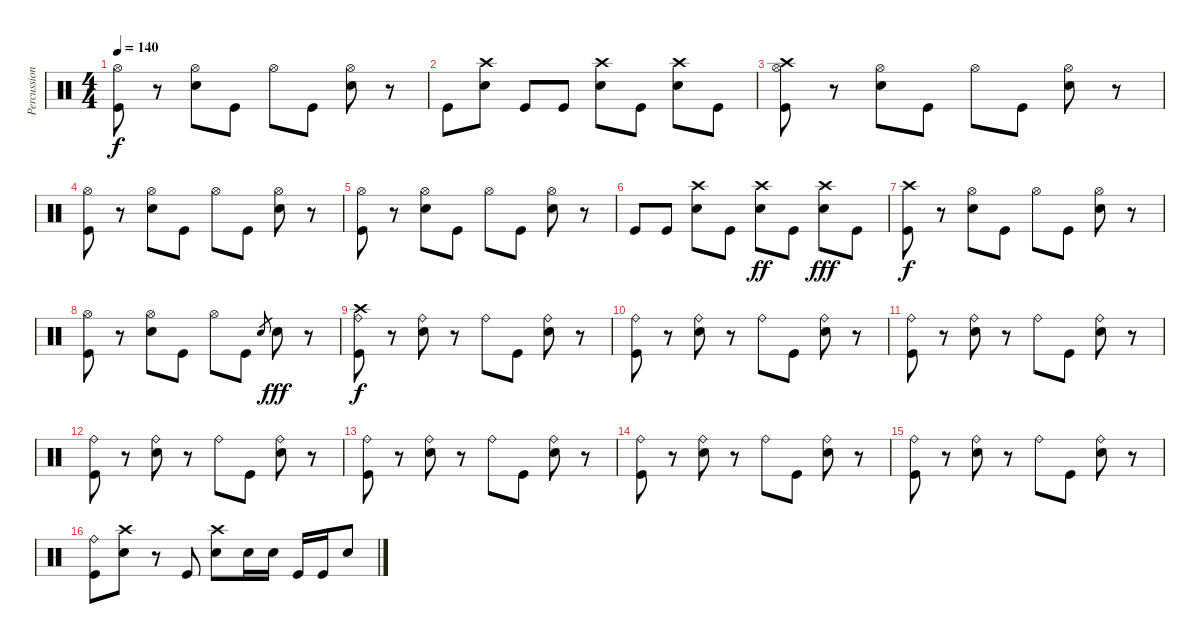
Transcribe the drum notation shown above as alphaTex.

\track ("Percussion" "Percussion") {instrument percussion}
\staff {score}
\articulation defaults
\ts (4 4)
\tempo 140
\clef neutral
\ks c
("Kick (hit)" "Hi-Hat (open)").8{dy f} r.8 ("Snare (hit) 2" "Hi-Hat (open)").8 "Kick (hit)".8 "Hi-Hat (open)".8 "Kick (hit)".8 ("Snare (hit) 2" "Hi-Hat (open)").8 r.8 |
"Kick (hit)".8 ("Snare (hit) 2" "Crash high (hit)").8 "Kick (hit)".8 "Kick (hit)".8 ("Snare (hit) 2" "Crash high (hit)").8 "Kick (hit)".8 ("Snare (hit) 2" "Crash high (hit)").8 "Kick (hit)".8 |
("Kick (hit)" "Hi-Hat (open)" "Crash high (hit)").8 r.8 ("Snare (hit) 2" "Hi-Hat (open)").8 "Kick (hit)".8 "Hi-Hat (open)".8 "Kick (hit)".8 ("Snare (hit) 2" "Hi-Hat (open)").8 r.8 |
("Kick (hit)" "Hi-Hat (open)").8 r.8 ("Snare (hit) 2" "Hi-Hat (open)").8 "Kick (hit)".8 "Hi-Hat (open)".8 "Kick (hit)".8 ("Snare (hit) 2" "Hi-Hat (open)").8 r.8 |
("Kick (hit)" "Hi-Hat (open)").8 r.8 ("Snare (hit) 2" "Hi-Hat (open)").8 "Kick (hit)".8 "Hi-Hat (open)".8 "Kick (hit)".8 ("Snare (hit) 2" "Hi-Hat (open)").8 r.8 |
"Kick (hit)".8 "Kick (hit)".8 ("Snare (hit) 2" "Crash high (hit)").8 "Kick (hit)".8 ("Snare (hit) 2" "Crash high (hit)").8{dy ff} "Kick (hit)".8 ("Snare (hit) 2" "Crash high (hit)").8{dy fff} "Kick (hit)".8 |
("Kick (hit)" "Crash high (hit)").8{dy f} r.8 ("Snare (hit) 2" "Hi-Hat (open)").8 "Kick (hit)".8 "Hi-Hat (open)".8 "Kick (hit)".8 ("Snare (hit) 2" "Hi-Hat (open)").8 r.8 |
("Kick (hit)" "Hi-Hat (open)").8 r.8 ("Snare (hit) 2" "Hi-Hat (open)").8 "Kick (hit)".8 "Hi-Hat (open)".8 "Kick (hit)".8 "Snare (hit) 2".8{gr} "Snare (hit) 2".8{dy fff} r.8 |
("Kick (hit)" "Ride (bell)" "Crash high (hit)").8{dy f} r.8 ("Snare (hit) 2" "Ride (bell)").8 r.8 "Ride (bell)".8 "Kick (hit)".8 ("Snare (hit) 2" "Ride (bell)").8 r.8 |
("Kick (hit)" "Ride (bell)").8 r.8 ("Snare (hit) 2" "Ride (bell)").8 r.8 "Ride (bell)".8 "Kick (hit)".8 ("Snare (hit) 2" "Ride (bell)").8 r.8 |
("Kick (hit)" "Ride (bell)").8 r.8 ("Snare (hit) 2" "Ride (bell)").8 r.8 "Ride (bell)".8 "Kick (hit)".8 ("Snare (hit) 2" "Ride (bell)").8 r.8 |
("Kick (hit)" "Ride (bell)").8 r.8 ("Snare (hit) 2" "Ride (bell)").8 r.8 "Ride (bell)".8 "Kick (hit)".8 ("Snare (hit) 2" "Ride (bell)").8 r.8 |
("Kick (hit)" "Ride (bell)").8 r.8 ("Snare (hit) 2" "Ride (bell)").8 r.8 "Ride (bell)".8 "Kick (hit)".8 ("Snare (hit) 2" "Ride (bell)").8 r.8 |
("Kick (hit)" "Ride (bell)").8 r.8 ("Snare (hit) 2" "Ride (bell)").8 r.8 "Ride (bell)".8 "Kick (hit)".8 ("Snare (hit) 2" "Ride (bell)").8 r.8 |
("Kick (hit)" "Ride (bell)").8 r.8 ("Snare (hit) 2" "Ride (bell)").8 r.8 "Ride (bell)".8 "Kick (hit)".8 ("Snare (hit) 2" "Ride (bell)").8 r.8 |
("Kick (hit)" "Ride (bell)").8 ("Snare (hit) 2" "Crash high (hit)").8 r.8 "Kick (hit)".8 ("Snare (hit) 2" "Crash high (hit)").8 "Snare (hit) 2".16 "Snare (hit) 2".16 "Kick (hit)".16 "Kick (hit)".16 "Snare (hit) 2".8
